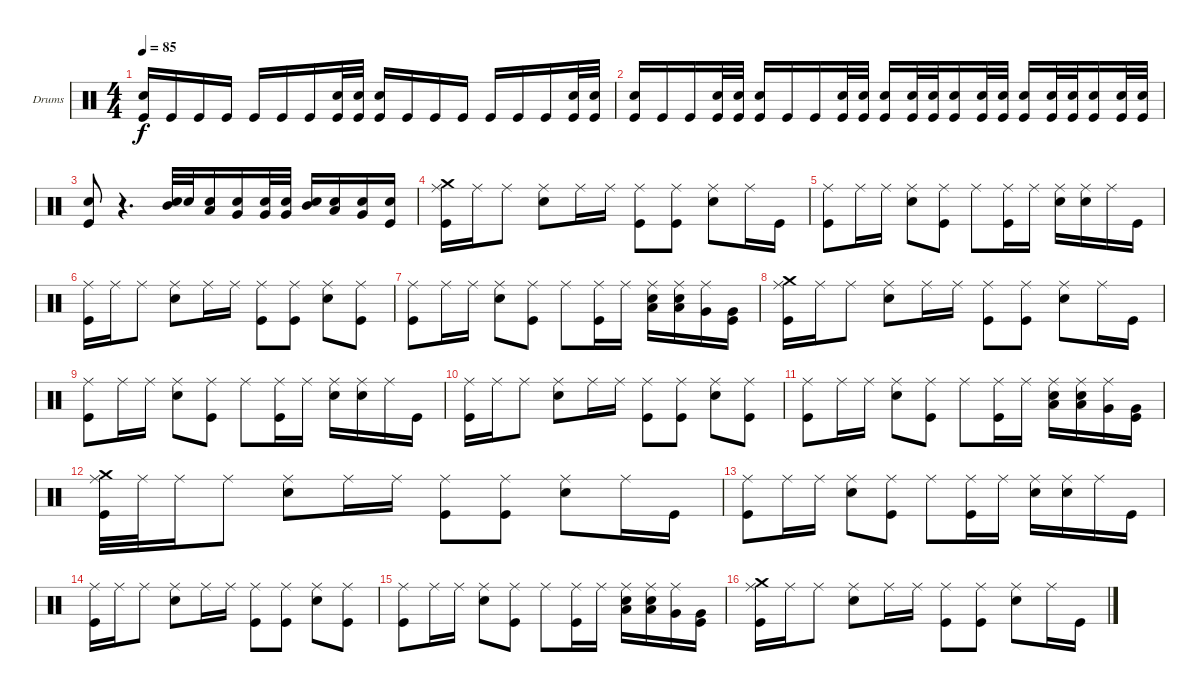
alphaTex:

\bracketExtendMode groupsimilarinstruments
\firstSystemTrackNameOrientation horizontal
\otherSystemsTrackNameOrientation horizontal
\track ("Drumkit" "Drums") {instrument percussion}
\staff {score}
\articulation defaults
\ts (4 4)
\tempo 85
\clef neutral
\ks c
("Kick (hit)" "Snare (hit) 2").16{dy f} "Kick (hit)".16 "Kick (hit)".16 "Kick (hit)".16 "Kick (hit)".16 "Kick (hit)".16 "Kick (hit)".16 ("Kick (hit)" "Snare (hit) 2").32 ("Kick (hit)" "Snare (hit) 2").32 ("Kick (hit)" "Snare (hit) 2").16 "Kick (hit)".16 "Kick (hit)".16 "Kick (hit)".16 "Kick (hit)".16 "Kick (hit)".16 "Kick (hit)".16 ("Kick (hit)" "Snare (hit) 2").32 ("Kick (hit)" "Snare (hit) 2").32 |
("Kick (hit)" "Snare (hit) 2").16 "Kick (hit)".16 "Kick (hit)".16 ("Kick (hit)" "Snare (hit) 2").32 ("Kick (hit)" "Snare (hit) 2").32 ("Kick (hit)" "Snare (hit) 2").16 "Kick (hit)".16 "Kick (hit)".16 ("Kick (hit)" "Snare (hit) 2").32 ("Kick (hit)" "Snare (hit) 2").32 ("Kick (hit)" "Snare (hit) 2").16 ("Kick (hit)" "Snare (hit) 2").32 ("Kick (hit)" "Snare (hit) 2").32 ("Kick (hit)" "Snare (hit) 2").16 ("Kick (hit)" "Snare (hit) 2").32 ("Kick (hit)" "Snare (hit) 2").32 ("Kick (hit)" "Snare (hit) 2").16 ("Kick (hit)" "Snare (hit) 2").32 ("Kick (hit)" "Snare (hit) 2").32 ("Kick (hit)" "Snare (hit) 2").16 ("Kick (hit)" "Snare (hit) 2").32 ("Kick (hit)" "Snare (hit) 2").32 |
("Kick (hit)" "Snare (hit) 2").8 r.4{d} ("Snare (hit) 2" "Mid Tom (hit)").32 "Snare (hit) 2".32 ("Snare (hit) 2" "Low Tom (hit)").16 ("Snare (hit) 2" "Very Low Tom (hit)").16 ("Snare (hit) 2" "Very Low Tom (hit)").32 ("Snare (hit) 2" "Very Low Tom (hit)").32 ("Snare (hit) 2" "Mid Tom (hit)").16 ("Snare (hit) 2" "Low Tom (hit)").16 ("Snare (hit) 2" "Very Low Tom (hit)").16 ("Kick (hit)" "Snare (hit) 2").16 |
("Kick (hit)" "Crash medium (hit)" "Ride (middle)").16 "Ride (middle)".16 "Ride (middle)".8 ("Snare (hit) 2" "Ride (middle)").8 "Ride (middle)".16 "Ride (middle)".16 ("Kick (hit)" "Ride (middle)").8 ("Kick (hit)" "Ride (middle)").8 ("Snare (hit) 2" "Ride (middle)").8 "Ride (middle)".16 "Kick (hit)".16 |
("Kick (hit)" "Ride (middle)").8 "Ride (middle)".16 "Ride (middle)".16 ("Snare (hit) 2" "Ride (middle)").8 ("Kick (hit)" "Ride (middle)").8 "Ride (middle)".8 ("Kick (hit)" "Ride (middle)").16 "Ride (middle)".16 ("Snare (hit) 2" "Ride (middle)").16 ("Snare (hit) 2" "Ride (middle)").16 "Ride (middle)".16 "Kick (hit)".16 |
("Kick (hit)" "Ride (middle)").16 "Ride (middle)".16 "Ride (middle)".8 ("Snare (hit) 2" "Ride (middle)").8 "Ride (middle)".16 "Ride (middle)".16 ("Kick (hit)" "Ride (middle)").8 ("Kick (hit)" "Ride (middle)").8 ("Snare (hit) 2" "Ride (middle)").8 ("Kick (hit)" "Ride (middle)").8 |
("Kick (hit)" "Ride (middle)").8 "Ride (middle)".16 "Ride (middle)".16 ("Snare (hit) 2" "Ride (middle)").8 ("Kick (hit)" "Ride (middle)").8 "Ride (middle)".8 ("Kick (hit)" "Ride (middle)").16 "Ride (middle)".16 ("Snare (hit) 2" "Low Tom (hit)" "Ride (middle)").16 ("Snare (hit) 2" "Low Tom (hit)" "Ride (middle)").16 ("Very Low Tom (hit)" "Ride (middle)").16 ("Kick (hit)" "Very Low Tom (hit)").16 |
("Kick (hit)" "Crash medium (hit)" "Ride (middle)").16 "Ride (middle)".16 "Ride (middle)".8 ("Snare (hit) 2" "Ride (middle)").8 "Ride (middle)".16 "Ride (middle)".16 ("Kick (hit)" "Ride (middle)").8 ("Kick (hit)" "Ride (middle)").8 ("Snare (hit) 2" "Ride (middle)").8 "Ride (middle)".16 "Kick (hit)".16 |
("Kick (hit)" "Ride (middle)").8 "Ride (middle)".16 "Ride (middle)".16 ("Snare (hit) 2" "Ride (middle)").8 ("Kick (hit)" "Ride (middle)").8 "Ride (middle)".8 ("Kick (hit)" "Ride (middle)").16 "Ride (middle)".16 ("Snare (hit) 2" "Ride (middle)").16 ("Snare (hit) 2" "Ride (middle)").16 "Ride (middle)".16 "Kick (hit)".16 |
("Kick (hit)" "Ride (middle)").16 "Ride (middle)".16 "Ride (middle)".8 ("Snare (hit) 2" "Ride (middle)").8 "Ride (middle)".16 "Ride (middle)".16 ("Kick (hit)" "Ride (middle)").8 ("Kick (hit)" "Ride (middle)").8 ("Snare (hit) 2" "Ride (middle)").8 ("Kick (hit)" "Ride (middle)").8 |
("Kick (hit)" "Ride (middle)").8 "Ride (middle)".16 "Ride (middle)".16 ("Snare (hit) 2" "Ride (middle)").8 ("Kick (hit)" "Ride (middle)").8 "Ride (middle)".8 ("Kick (hit)" "Ride (middle)").16 "Ride (middle)".16 ("Snare (hit) 2" "Low Tom (hit)" "Ride (middle)").16 ("Snare (hit) 2" "Low Tom (hit)" "Ride (middle)").16 ("Very Low Tom (hit)" "Ride (middle)").16 ("Kick (hit)" "Very Low Tom (hit)").16 |
("Kick (hit)" "Crash medium (hit)" "Ride (middle)").32 "Ride (middle)".32 "Ride (middle)".16 "Ride (middle)".8 ("Snare (hit) 2" "Ride (middle)").8 "Ride (middle)".16 "Ride (middle)".16 ("Kick (hit)" "Ride (middle)").8 ("Kick (hit)" "Ride (middle)").8 ("Snare (hit) 2" "Ride (middle)").8 "Ride (middle)".16 "Kick (hit)".16 |
("Kick (hit)" "Ride (middle)").8 "Ride (middle)".16 "Ride (middle)".16 ("Snare (hit) 2" "Ride (middle)").8 ("Kick (hit)" "Ride (middle)").8 "Ride (middle)".8 ("Kick (hit)" "Ride (middle)").16 "Ride (middle)".16 ("Snare (hit) 2" "Ride (middle)").16 ("Snare (hit) 2" "Ride (middle)").16 "Ride (middle)".16 "Kick (hit)".16 |
("Kick (hit)" "Ride (middle)").16 "Ride (middle)".16 "Ride (middle)".8 ("Snare (hit) 2" "Ride (middle)").8 "Ride (middle)".16 "Ride (middle)".16 ("Kick (hit)" "Ride (middle)").8 ("Kick (hit)" "Ride (middle)").8 ("Snare (hit) 2" "Ride (middle)").8 ("Kick (hit)" "Ride (middle)").8 |
("Kick (hit)" "Ride (middle)").8 "Ride (middle)".16 "Ride (middle)".16 ("Snare (hit) 2" "Ride (middle)").8 ("Kick (hit)" "Ride (middle)").8 "Ride (middle)".8 ("Kick (hit)" "Ride (middle)").16 "Ride (middle)".16 ("Snare (hit) 2" "Low Tom (hit)" "Ride (middle)").16 ("Snare (hit) 2" "Low Tom (hit)" "Ride (middle)").16 ("Very Low Tom (hit)" "Ride (middle)").16 ("Kick (hit)" "Very Low Tom (hit)").16 |
("Kick (hit)" "Crash medium (hit)" "Ride (middle)").16 "Ride (middle)".16 "Ride (middle)".8 ("Snare (hit) 2" "Ride (middle)").8 "Ride (middle)".16 "Ride (middle)".16 ("Kick (hit)" "Ride (middle)").8 ("Kick (hit)" "Ride (middle)").8 ("Snare (hit) 2" "Ride (middle)").8 "Ride (middle)".16 "Kick (hit)".16
